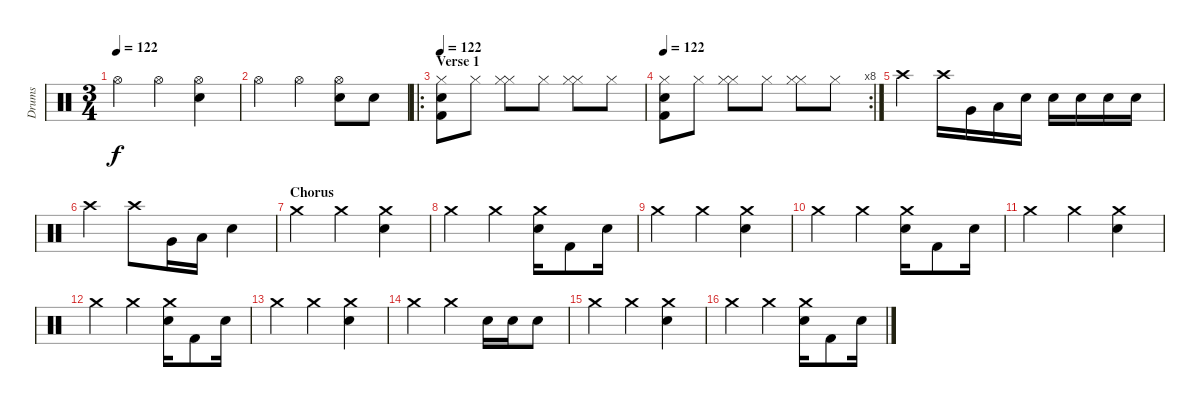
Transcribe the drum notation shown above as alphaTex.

\track ("Drums" "Drums") {instrument percussion}
\staff {score}
\articulation defaults
\ts (3 4)
\tempo 122
\clef neutral
\ks c "Hi-Hat (open)".4{dy f} "Hi-Hat (open)".4
("Electric Snare (hit)" "Hi-Hat (open)").4 |
"Hi-Hat (open)".4 "Hi-Hat (open)".4 ("Electric Snare (hit)" "Hi-Hat (open)").8 "Electric Snare (hit)".8 |
\ro
\section ("" "Verse 1")
\tempo 122
("Electric Snare (hit)" "Kick (hit) 2" "Hi-Hat (closed)").8 "Hi-Hat (closed)".8 ("Hi-Hat (closed)" "Hi-Hat (closed)").8 "Hi-Hat (closed)".8 ("Hi-Hat (closed)" "Hi-Hat (closed)").8 "Hi-Hat (closed)".8 |
\rc 8
\tempo 122
("Electric Snare (hit)" "Kick (hit) 2" "Hi-Hat (closed)").8 "Hi-Hat (closed)".8 ("Hi-Hat (closed)" "Hi-Hat (closed)").8 "Hi-Hat (closed)".8 ("Hi-Hat (closed)" "Hi-Hat (closed)").8 "Hi-Hat (closed)".8 |
"Crash high (hit)".4 "Crash high (hit)".16 "Very Low Tom (hit)".16 "Low Tom (hit)".16 "Electric Snare (hit)".16 "Electric Snare (hit)".16 "Electric Snare (hit)".16 "Electric Snare (hit)".16 "Electric Snare (hit)".16 |
"Crash high (hit)".4 "Crash high (hit)".8 "Very Low Tom (hit)".16 "Low Tom (hit)".16 "Electric Snare (hit)".4 |
\section ("" "Chorus")
"Crash medium (hit)".4 "Crash medium (hit)".4 ("Electric Snare (hit)" "Crash medium (hit)").4 |
"Crash medium (hit)".4 "Crash medium (hit)".4 ("Electric Snare (hit)" "Crash medium (hit)").16 "Kick (hit) 2".8 "Electric Snare (hit)".16 |
"Crash medium (hit)".4 "Crash medium (hit)".4 ("Electric Snare (hit)" "Crash medium (hit)").4 |
"Crash medium (hit)".4 "Crash medium (hit)".4 ("Electric Snare (hit)" "Crash medium (hit)").16 "Kick (hit) 2".8 "Electric Snare (hit)".16 |
"Crash medium (hit)".4 "Crash medium (hit)".4 ("Electric Snare (hit)" "Crash medium (hit)").4 |
"Crash medium (hit)".4 "Crash medium (hit)".4 ("Electric Snare (hit)" "Crash medium (hit)").16 "Kick (hit) 2".8 "Electric Snare (hit)".16 |
"Crash medium (hit)".4 "Crash medium (hit)".4 ("Electric Snare (hit)" "Crash medium (hit)").4 |
"Crash medium (hit)".4 "Crash medium (hit)".4 "Electric Snare (hit)".16 "Electric Snare (hit)".16 "Electric Snare (hit)".8 |
"Crash medium (hit)".4 "Crash medium (hit)".4 ("Electric Snare (hit)" "Crash medium (hit)").4 |
"Crash medium (hit)".4 "Crash medium (hit)".4 ("Electric Snare (hit)" "Crash medium (hit)").16 "Kick (hit) 2".8 "Electric Snare (hit)".16
